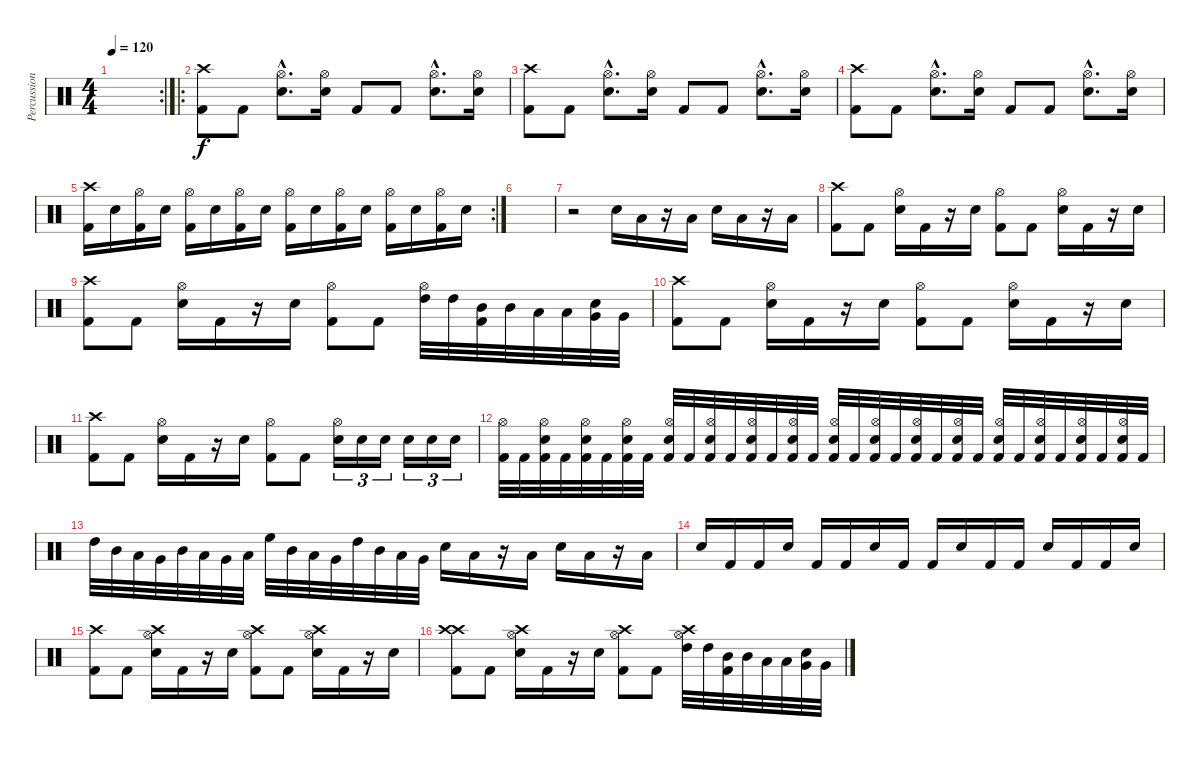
\track ("Percussion" "Percussion") {instrument percussion}
\staff {score}
\articulation defaults
\rc 2
\ts (4 4)
\tempo 120
\clef neutral
\ks c
|
\ro
("Crash high (hit)" "Kick (hit) 2").8 "Kick (hit) 2".8 ("Hi-Hat (open)"{hac} "Electric Snare (hit)"{hac}).8{d} ("Hi-Hat (open)" "Electric Snare (hit)").16 "Kick (hit) 2".8 "Kick (hit) 2".8 ("Hi-Hat (open)"{hac} "Electric Snare (hit)"{hac}).8{d} ("Hi-Hat (open)" "Electric Snare (hit)").16 |
("Crash high (hit)" "Kick (hit) 2").8 "Kick (hit) 2".8 ("Hi-Hat (open)"{hac} "Electric Snare (hit)"{hac}).8{d} ("Hi-Hat (open)" "Electric Snare (hit)").16 "Kick (hit) 2".8 "Kick (hit) 2".8 ("Hi-Hat (open)"{hac} "Electric Snare (hit)"{hac}).8{d} ("Hi-Hat (open)" "Electric Snare (hit)").16 |
("Crash high (hit)" "Kick (hit) 2").8 "Kick (hit) 2".8 ("Hi-Hat (open)"{hac} "Electric Snare (hit)"{hac}).8{d} ("Hi-Hat (open)" "Electric Snare (hit)").16 "Kick (hit) 2".8 "Kick (hit) 2".8 ("Hi-Hat (open)"{hac} "Electric Snare (hit)"{hac}).8{d} ("Hi-Hat (open)" "Electric Snare (hit)").16 |
\rc 2
("Crash high (hit)" "Kick (hit) 2").16 "Electric Snare (hit)".16 ("Hi-Hat (open)" "Kick (hit) 2").16 "Electric Snare (hit)".16 ("Hi-Hat (open)" "Kick (hit) 2").16 "Electric Snare (hit)".16 ("Hi-Hat (open)" "Kick (hit) 2").16 "Electric Snare (hit)".16 ("Hi-Hat (open)" "Kick (hit) 2").16 "Electric Snare (hit)".16 ("Hi-Hat (open)" "Kick (hit) 2").16 "Electric Snare (hit)".16 ("Hi-Hat (open)" "Kick (hit) 2").16 "Electric Snare (hit)".16 ("Hi-Hat (open)" "Kick (hit) 2").16 "Electric Snare (hit)".16 |
|
r.2 "Electric Snare (hit)".16 "Low Floor Tom (hit)".16 r.16 "Low Floor Tom (hit)".16 "Electric Snare (hit)".16 "Low Floor Tom (hit)".16 r.16 "Low Floor Tom (hit)".16 |
("Crash high (hit)" "Kick (hit) 2").8 "Kick (hit) 2".8 ("Hi-Hat (open)" "Electric Snare (hit)").16 "Kick (hit) 2".16 r.16 "Electric Snare (hit)".16 ("Hi-Hat (open)" "Kick (hit) 2").8 "Kick (hit) 2".8 ("Hi-Hat (open)" "Electric Snare (hit)").16 "Kick (hit) 2".16 r.16 "Electric Snare (hit)".16 |
("Crash high (hit)" "Kick (hit) 2").8 "Kick (hit) 2".8 ("Hi-Hat (open)" "Electric Snare (hit)").16 "Kick (hit) 2".16 r.16 "Electric Snare (hit)".16 ("Hi-Hat (open)" "Kick (hit) 2").8 "Kick (hit) 2".8 ("Hi-Hat (open)" "High Tom (hit)").32 "High Tom (hit)".32 ("Kick (hit) 2" "Mid Tom (hit)").32 "Mid Tom (hit)".32 "Low Tom (hit)".32 "Low Tom (hit)".32 ("Electric Snare (hit)" "Very Low Tom (hit)").32 "Very Low Tom (hit)".32 |
("Crash high (hit)" "Kick (hit) 2").8 "Kick (hit) 2".8 ("Hi-Hat (open)" "Electric Snare (hit)").16 "Kick (hit) 2".16 r.16 "Electric Snare (hit)".16 ("Hi-Hat (open)" "Kick (hit) 2").8 "Kick (hit) 2".8 ("Hi-Hat (open)" "Electric Snare (hit)").16 "Kick (hit) 2".16 r.16 "Electric Snare (hit)".16 |
("Crash high (hit)" "Kick (hit) 2").8 "Kick (hit) 2".8 ("Hi-Hat (open)" "Electric Snare (hit)").16 "Kick (hit) 2".16 r.16 "Electric Snare (hit)".16 ("Hi-Hat (open)" "Kick (hit) 2").8 "Kick (hit) 2".8 ("Hi-Hat (open)" "Electric Snare (hit)").16{tu (3 2)} "Electric Snare (hit)".16{tu (3 2)} "Electric Snare (hit)".16{tu (3 2)} "Electric Snare (hit)".16{tu (3 2)} "Electric Snare (hit)".16{tu (3 2)} "Electric Snare (hit)".16{tu (3 2)} |
("Hi-Hat (open)" "Kick (hit) 2").32 "Kick (hit) 2".32 ("Electric Snare (hit)" "Hi-Hat (open)" "Kick (hit) 2").32 "Kick (hit) 2".32 ("Electric Snare (hit)" "Hi-Hat (open)" "Kick (hit) 2").32 "Kick (hit) 2".32 ("Electric Snare (hit)" "Hi-Hat (open)" "Kick (hit) 2").32 "Kick (hit) 2".32 ("Electric Snare (hit)" "Hi-Hat (open)" "Kick (hit) 2").32 "Kick (hit) 2".32 ("Electric Snare (hit)" "Hi-Hat (open)" "Kick (hit) 2").32 "Kick (hit) 2".32 ("Electric Snare (hit)" "Hi-Hat (open)" "Kick (hit) 2").32 "Kick (hit) 2".32 ("Electric Snare (hit)" "Hi-Hat (open)" "Kick (hit) 2").32 "Kick (hit) 2".32 ("Electric Snare (hit)" "Hi-Hat (open)" "Kick (hit) 2").32 "Kick (hit) 2".32 ("Electric Snare (hit)" "Hi-Hat (open)" "Kick (hit) 2").32 "Kick (hit) 2".32 ("Electric Snare (hit)" "Hi-Hat (open)" "Kick (hit) 2").32 "Kick (hit) 2".32 ("Electric Snare (hit)" "Hi-Hat (open)" "Kick (hit) 2").32 "Kick (hit) 2".32 ("Electric Snare (hit)" "Hi-Hat (open)" "Kick (hit) 2").32 "Kick (hit) 2".32 ("Electric Snare (hit)" "Hi-Hat (open)" "Kick (hit) 2").32 "Kick (hit) 2".32 ("Electric Snare (hit)" "Hi-Hat (open)" "Kick (hit) 2").32 "Kick (hit) 2".32 ("Electric Snare (hit)" "Hi-Hat (open)" "Kick (hit) 2").32 "Kick (hit) 2".32 |
"High Tom (hit)".32 "Mid Tom (hit)".32 "Low Tom (hit)".32 "Very Low Tom (hit)".32 "Mid Tom (hit)".32 "Low Tom (hit)".32 "Very Low Tom (hit)".32 "Low Floor Tom (hit)".32 "High Floor Tom (hit)".32 "Mid Tom (hit)".32 "Low Tom (hit)".32 "Very Low Tom (hit)".32 "High Tom (hit)".32 "Mid Tom (hit)".32 "Low Tom (hit)".32 "Very Low Tom (hit)".32 "Electric Snare (hit)".16 "Low Floor Tom (hit)".16 r.16 "Low Floor Tom (hit)".16 "Electric Snare (hit)".16 "Low Floor Tom (hit)".16 r.16 "Low Floor Tom (hit)".16 |
"Electric Snare (hit)".16 "Kick (hit) 2".16 "Kick (hit) 2".16 "Electric Snare (hit)".16 "Kick (hit) 2".16 "Kick (hit) 2".16 "Electric Snare (hit)".16 "Kick (hit) 2".16 "Kick (hit) 2".16 "Electric Snare (hit)".16 "Kick (hit) 2".16 "Kick (hit) 2".16 "Electric Snare (hit)".16 "Kick (hit) 2".16 "Kick (hit) 2".16 "Electric Snare (hit)".16 |
("Crash high (hit)" "Kick (hit) 2").8 "Kick (hit) 2".8 ("Crash high (hit)" "Hi-Hat (open)" "Electric Snare (hit)").16 "Kick (hit) 2".16 r.16 "Electric Snare (hit)".16 ("Crash high (hit)" "Hi-Hat (open)" "Kick (hit) 2").8 "Kick (hit) 2".8 ("Crash high (hit)" "Hi-Hat (open)" "Electric Snare (hit)").16 "Kick (hit) 2".16 r.16 "Electric Snare (hit)".16 |
("Crash high (hit)" "Crash high (hit)" "Kick (hit) 2").8 "Kick (hit) 2".8 ("Crash high (hit)" "Hi-Hat (open)" "Electric Snare (hit)").16 "Kick (hit) 2".16 r.16 "Electric Snare (hit)".16 ("Crash high (hit)" "Hi-Hat (open)" "Kick (hit) 2").8 "Kick (hit) 2".8 ("Crash high (hit)" "Hi-Hat (open)" "High Tom (hit)").32 "High Tom (hit)".32 ("Kick (hit) 2" "Mid Tom (hit)").32 "Mid Tom (hit)".32 "Low Tom (hit)".32 "Low Tom (hit)".32 ("Electric Snare (hit)" "Very Low Tom (hit)").32 "Very Low Tom (hit)".32
